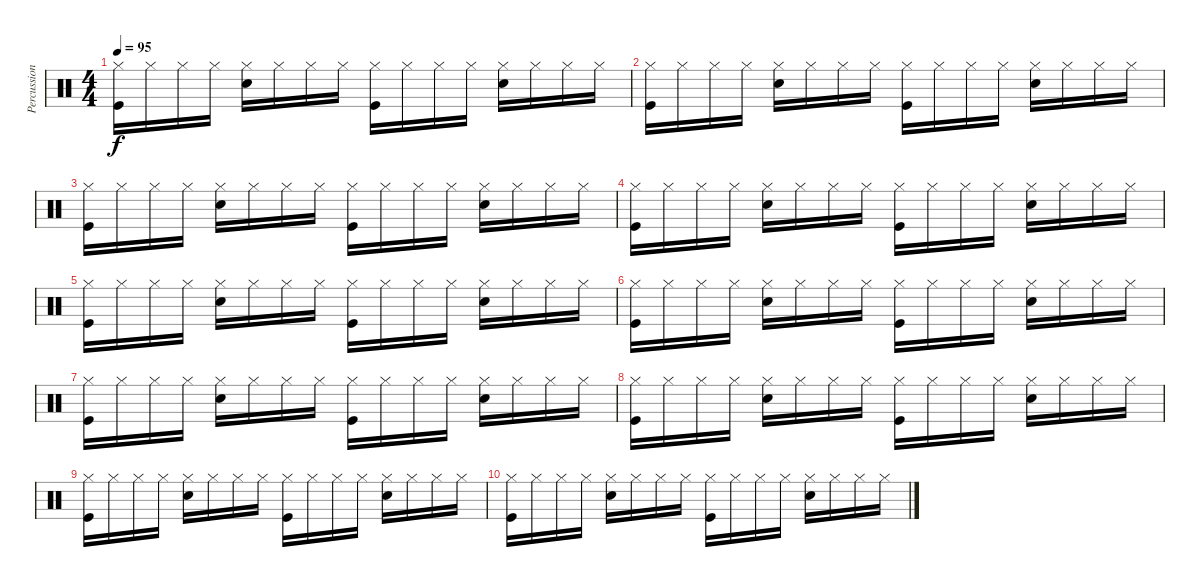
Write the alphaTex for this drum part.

\track ("Percussion" "Percussion") {instrument percussion}
\staff {score}
\articulation defaults
\ts (4 4)
\tempo 95
\clef neutral
\ks c
("Hi-Hat (closed)" "Kick (hit)").16{dy f} "Hi-Hat (closed)".16 "Hi-Hat (closed)".16 "Hi-Hat (closed)".16 ("Hi-Hat (closed)" "Snare (hit) 2").16 "Hi-Hat (closed)".16 "Hi-Hat (closed)".16 "Hi-Hat (closed)".16 ("Hi-Hat (closed)" "Kick (hit)").16 "Hi-Hat (closed)".16 "Hi-Hat (closed)".16 "Hi-Hat (closed)".16 ("Hi-Hat (closed)" "Snare (hit) 2").16 "Hi-Hat (closed)".16 "Hi-Hat (closed)".16 "Hi-Hat (closed)".16 |
("Hi-Hat (closed)" "Kick (hit)").16 "Hi-Hat (closed)".16 "Hi-Hat (closed)".16 "Hi-Hat (closed)".16 ("Hi-Hat (closed)" "Snare (hit) 2").16 "Hi-Hat (closed)".16 "Hi-Hat (closed)".16 "Hi-Hat (closed)".16 ("Hi-Hat (closed)" "Kick (hit)").16 "Hi-Hat (closed)".16 "Hi-Hat (closed)".16 "Hi-Hat (closed)".16 ("Hi-Hat (closed)" "Snare (hit) 2").16 "Hi-Hat (closed)".16 "Hi-Hat (closed)".16 "Hi-Hat (closed)".16 |
("Hi-Hat (closed)" "Kick (hit)").16 "Hi-Hat (closed)".16 "Hi-Hat (closed)".16 "Hi-Hat (closed)".16 ("Hi-Hat (closed)" "Snare (hit) 2").16 "Hi-Hat (closed)".16 "Hi-Hat (closed)".16 "Hi-Hat (closed)".16 ("Hi-Hat (closed)" "Kick (hit)").16 "Hi-Hat (closed)".16 "Hi-Hat (closed)".16 "Hi-Hat (closed)".16 ("Hi-Hat (closed)" "Snare (hit) 2").16 "Hi-Hat (closed)".16 "Hi-Hat (closed)".16 "Hi-Hat (closed)".16 |
("Hi-Hat (closed)" "Kick (hit)").16 "Hi-Hat (closed)".16 "Hi-Hat (closed)".16 "Hi-Hat (closed)".16 ("Hi-Hat (closed)" "Snare (hit) 2").16 "Hi-Hat (closed)".16 "Hi-Hat (closed)".16 "Hi-Hat (closed)".16 ("Hi-Hat (closed)" "Kick (hit)").16 "Hi-Hat (closed)".16 "Hi-Hat (closed)".16 "Hi-Hat (closed)".16 ("Hi-Hat (closed)" "Snare (hit) 2").16 "Hi-Hat (closed)".16 "Hi-Hat (closed)".16 "Hi-Hat (closed)".16 |
("Hi-Hat (closed)" "Kick (hit)").16 "Hi-Hat (closed)".16 "Hi-Hat (closed)".16 "Hi-Hat (closed)".16 ("Hi-Hat (closed)" "Snare (hit) 2").16 "Hi-Hat (closed)".16 "Hi-Hat (closed)".16 "Hi-Hat (closed)".16 ("Hi-Hat (closed)" "Kick (hit)").16 "Hi-Hat (closed)".16 "Hi-Hat (closed)".16 "Hi-Hat (closed)".16 ("Hi-Hat (closed)" "Snare (hit) 2").16 "Hi-Hat (closed)".16 "Hi-Hat (closed)".16 "Hi-Hat (closed)".16 |
("Hi-Hat (closed)" "Kick (hit)").16 "Hi-Hat (closed)".16 "Hi-Hat (closed)".16 "Hi-Hat (closed)".16 ("Hi-Hat (closed)" "Snare (hit) 2").16 "Hi-Hat (closed)".16 "Hi-Hat (closed)".16 "Hi-Hat (closed)".16 ("Hi-Hat (closed)" "Kick (hit)").16 "Hi-Hat (closed)".16 "Hi-Hat (closed)".16 "Hi-Hat (closed)".16 ("Hi-Hat (closed)" "Snare (hit) 2").16 "Hi-Hat (closed)".16 "Hi-Hat (closed)".16 "Hi-Hat (closed)".16 |
("Hi-Hat (closed)" "Kick (hit)").16 "Hi-Hat (closed)".16 "Hi-Hat (closed)".16 "Hi-Hat (closed)".16 ("Hi-Hat (closed)" "Snare (hit) 2").16 "Hi-Hat (closed)".16 "Hi-Hat (closed)".16 "Hi-Hat (closed)".16 ("Hi-Hat (closed)" "Kick (hit)").16 "Hi-Hat (closed)".16 "Hi-Hat (closed)".16 "Hi-Hat (closed)".16 ("Hi-Hat (closed)" "Snare (hit) 2").16 "Hi-Hat (closed)".16 "Hi-Hat (closed)".16 "Hi-Hat (closed)".16 |
("Hi-Hat (closed)" "Kick (hit)").16 "Hi-Hat (closed)".16 "Hi-Hat (closed)".16 "Hi-Hat (closed)".16 ("Hi-Hat (closed)" "Snare (hit) 2").16 "Hi-Hat (closed)".16 "Hi-Hat (closed)".16 "Hi-Hat (closed)".16 ("Hi-Hat (closed)" "Kick (hit)").16 "Hi-Hat (closed)".16 "Hi-Hat (closed)".16 "Hi-Hat (closed)".16 ("Hi-Hat (closed)" "Snare (hit) 2").16 "Hi-Hat (closed)".16 "Hi-Hat (closed)".16 "Hi-Hat (closed)".16 |
("Hi-Hat (closed)" "Kick (hit)").16 "Hi-Hat (closed)".16 "Hi-Hat (closed)".16 "Hi-Hat (closed)".16 ("Hi-Hat (closed)" "Snare (hit) 2").16 "Hi-Hat (closed)".16 "Hi-Hat (closed)".16 "Hi-Hat (closed)".16 ("Hi-Hat (closed)" "Kick (hit)").16 "Hi-Hat (closed)".16 "Hi-Hat (closed)".16 "Hi-Hat (closed)".16 ("Hi-Hat (closed)" "Snare (hit) 2").16 "Hi-Hat (closed)".16 "Hi-Hat (closed)".16 "Hi-Hat (closed)".16 |
("Hi-Hat (closed)" "Kick (hit)").16 "Hi-Hat (closed)".16 "Hi-Hat (closed)".16 "Hi-Hat (closed)".16 ("Hi-Hat (closed)" "Snare (hit) 2").16 "Hi-Hat (closed)".16 "Hi-Hat (closed)".16 "Hi-Hat (closed)".16 ("Hi-Hat (closed)" "Kick (hit)").16 "Hi-Hat (closed)".16 "Hi-Hat (closed)".16 "Hi-Hat (closed)".16 ("Hi-Hat (closed)" "Snare (hit) 2").16 "Hi-Hat (closed)".16 "Hi-Hat (closed)".16 "Hi-Hat (closed)".16
